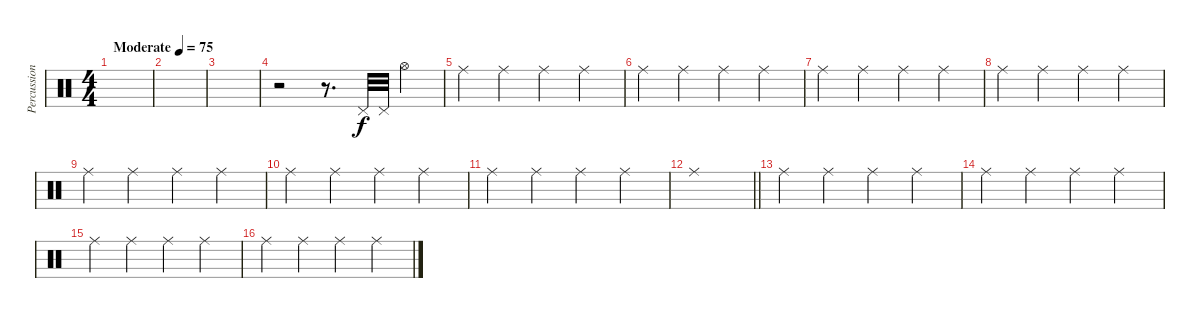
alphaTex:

\track ("Percussions" "Percussion") {instrument percussion}
\staff {score}
\articulation defaults
\ts (4 4)
\tempo (75 "Moderate")
\clef neutral
\ks c
|
|
|
r.2 r.8{d} "Pedal Hi-Hat (hit)".32 "Pedal Hi-Hat (hit)".32 "Hi-Hat (open)".4 |
"Ride (middle)".4 "Ride (middle)".4 "Ride (middle)".4 "Ride (middle)".4 |
"Ride (middle)".4 "Ride (middle)".4 "Ride (middle)".4 "Ride (middle)".4 |
"Ride (middle)".4 "Ride (middle)".4 "Ride (middle)".4 "Ride (middle)".4 |
"Ride (middle)".4 "Ride (middle)".4 "Ride (middle)".4 "Ride (middle)".4 |
"Ride (middle)".4 "Ride (middle)".4 "Ride (middle)".4 "Ride (middle)".4 |
"Ride (middle)".4 "Ride (middle)".4 "Ride (middle)".4 "Ride (middle)".4 |
"Ride (middle)".4 "Ride (middle)".4 "Ride (middle)".4 "Ride (middle)".4 |
\barLineRight lightlight "Ride (middle)".1
|
"Ride (middle)".4 "Ride (middle)".4 "Ride (middle)".4 "Ride (middle)".4 |
"Ride (middle)".4 "Ride (middle)".4 "Ride (middle)".4 "Ride (middle)".4 |
"Ride (middle)".4 "Ride (middle)".4 "Ride (middle)".4 "Ride (middle)".4 |
"Ride (middle)".4 "Ride (middle)".4 "Ride (middle)".4 "Ride (middle)".4
